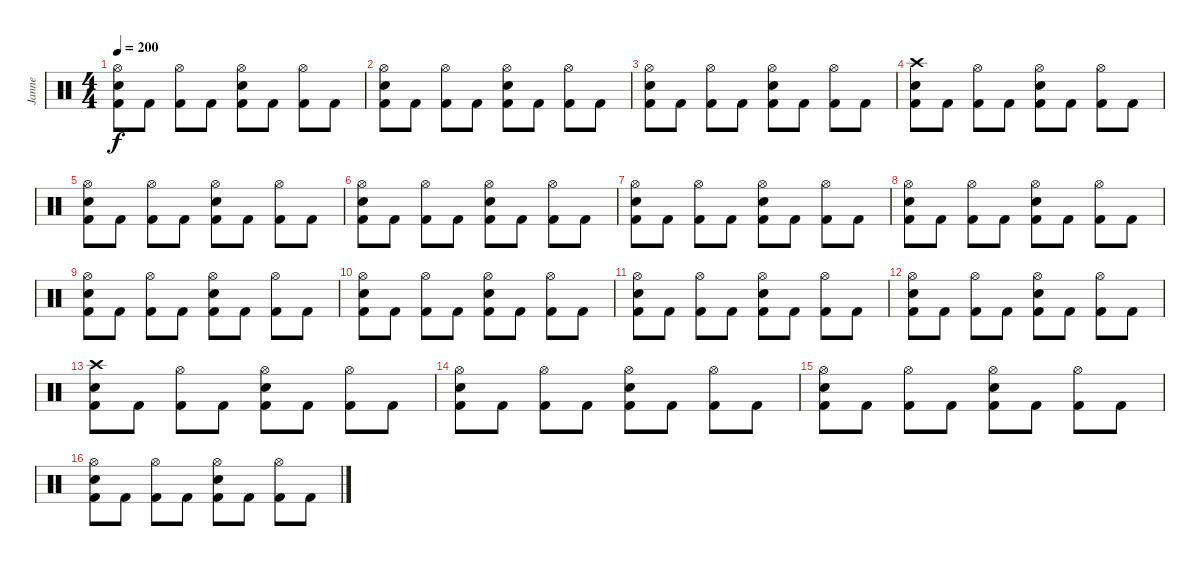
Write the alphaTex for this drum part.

\track ("Janne" "Janne") {instrument percussion}
\staff {score}
\articulation defaults
\ts (4 4)
\tempo 200
\clef neutral
\ks c
("Hi-Hat (open)" "Electric Snare (hit)" "Kick (hit) 2").8{dy f} "Kick (hit) 2".8 ("Hi-Hat (open)" "Kick (hit) 2").8 "Kick (hit) 2".8 ("Hi-Hat (open)" "Electric Snare (hit)" "Kick (hit) 2").8 "Kick (hit) 2".8 ("Hi-Hat (open)" "Kick (hit) 2").8 "Kick (hit) 2".8 |
("Hi-Hat (open)" "Electric Snare (hit)" "Kick (hit) 2").8 "Kick (hit) 2".8 ("Hi-Hat (open)" "Kick (hit) 2").8 "Kick (hit) 2".8 ("Hi-Hat (open)" "Electric Snare (hit)" "Kick (hit) 2").8 "Kick (hit) 2".8 ("Hi-Hat (open)" "Kick (hit) 2").8 "Kick (hit) 2".8 |
("Hi-Hat (open)" "Electric Snare (hit)" "Kick (hit) 2").8 "Kick (hit) 2".8 ("Hi-Hat (open)" "Kick (hit) 2").8 "Kick (hit) 2".8 ("Hi-Hat (open)" "Electric Snare (hit)" "Kick (hit) 2").8 "Kick (hit) 2".8 ("Hi-Hat (open)" "Kick (hit) 2").8 "Kick (hit) 2".8 |
("Crash high (hit)" "Electric Snare (hit)" "Kick (hit) 2").8 "Kick (hit) 2".8 ("Hi-Hat (open)" "Kick (hit) 2").8 "Kick (hit) 2".8 ("Hi-Hat (open)" "Electric Snare (hit)" "Kick (hit) 2").8 "Kick (hit) 2".8 ("Hi-Hat (open)" "Kick (hit) 2").8 "Kick (hit) 2".8 |
("Hi-Hat (open)" "Electric Snare (hit)" "Kick (hit) 2").8 "Kick (hit) 2".8 ("Hi-Hat (open)" "Kick (hit) 2").8 "Kick (hit) 2".8 ("Hi-Hat (open)" "Electric Snare (hit)" "Kick (hit) 2").8 "Kick (hit) 2".8 ("Hi-Hat (open)" "Kick (hit) 2").8 "Kick (hit) 2".8 |
("Hi-Hat (open)" "Electric Snare (hit)" "Kick (hit) 2").8 "Kick (hit) 2".8 ("Hi-Hat (open)" "Kick (hit) 2").8 "Kick (hit) 2".8 ("Hi-Hat (open)" "Electric Snare (hit)" "Kick (hit) 2").8 "Kick (hit) 2".8 ("Hi-Hat (open)" "Kick (hit) 2").8 "Kick (hit) 2".8 |
("Hi-Hat (open)" "Electric Snare (hit)" "Kick (hit) 2").8 "Kick (hit) 2".8 ("Hi-Hat (open)" "Kick (hit) 2").8 "Kick (hit) 2".8 ("Hi-Hat (open)" "Electric Snare (hit)" "Kick (hit) 2").8 "Kick (hit) 2".8 ("Hi-Hat (open)" "Kick (hit) 2").8 "Kick (hit) 2".8 |
("Hi-Hat (open)" "Electric Snare (hit)" "Kick (hit) 2").8 "Kick (hit) 2".8 ("Hi-Hat (open)" "Kick (hit) 2").8 "Kick (hit) 2".8 ("Hi-Hat (open)" "Electric Snare (hit)" "Kick (hit) 2").8 "Kick (hit) 2".8 ("Hi-Hat (open)" "Kick (hit) 2").8 "Kick (hit) 2".8 |
("Hi-Hat (open)" "Electric Snare (hit)" "Kick (hit) 2").8 "Kick (hit) 2".8 ("Hi-Hat (open)" "Kick (hit) 2").8 "Kick (hit) 2".8 ("Hi-Hat (open)" "Electric Snare (hit)" "Kick (hit) 2").8 "Kick (hit) 2".8 ("Hi-Hat (open)" "Kick (hit) 2").8 "Kick (hit) 2".8 |
("Hi-Hat (open)" "Electric Snare (hit)" "Kick (hit) 2").8 "Kick (hit) 2".8 ("Hi-Hat (open)" "Kick (hit) 2").8 "Kick (hit) 2".8 ("Hi-Hat (open)" "Electric Snare (hit)" "Kick (hit) 2").8 "Kick (hit) 2".8 ("Hi-Hat (open)" "Kick (hit) 2").8 "Kick (hit) 2".8 |
("Hi-Hat (open)" "Electric Snare (hit)" "Kick (hit) 2").8 "Kick (hit) 2".8 ("Hi-Hat (open)" "Kick (hit) 2").8 "Kick (hit) 2".8 ("Hi-Hat (open)" "Electric Snare (hit)" "Kick (hit) 2").8 "Kick (hit) 2".8 ("Hi-Hat (open)" "Kick (hit) 2").8 "Kick (hit) 2".8 |
("Hi-Hat (open)" "Electric Snare (hit)" "Kick (hit) 2").8 "Kick (hit) 2".8 ("Hi-Hat (open)" "Kick (hit) 2").8 "Kick (hit) 2".8 ("Hi-Hat (open)" "Electric Snare (hit)" "Kick (hit) 2").8 "Kick (hit) 2".8 ("Hi-Hat (open)" "Kick (hit) 2").8 "Kick (hit) 2".8 |
("Crash high (hit)" "Electric Snare (hit)" "Kick (hit) 2").8 "Kick (hit) 2".8 ("Hi-Hat (open)" "Kick (hit) 2").8 "Kick (hit) 2".8 ("Hi-Hat (open)" "Electric Snare (hit)" "Kick (hit) 2").8 "Kick (hit) 2".8 ("Hi-Hat (open)" "Kick (hit) 2").8 "Kick (hit) 2".8 |
("Hi-Hat (open)" "Electric Snare (hit)" "Kick (hit) 2").8 "Kick (hit) 2".8 ("Hi-Hat (open)" "Kick (hit) 2").8 "Kick (hit) 2".8 ("Hi-Hat (open)" "Electric Snare (hit)" "Kick (hit) 2").8 "Kick (hit) 2".8 ("Hi-Hat (open)" "Kick (hit) 2").8 "Kick (hit) 2".8 |
("Hi-Hat (open)" "Electric Snare (hit)" "Kick (hit) 2").8 "Kick (hit) 2".8 ("Hi-Hat (open)" "Kick (hit) 2").8 "Kick (hit) 2".8 ("Hi-Hat (open)" "Electric Snare (hit)" "Kick (hit) 2").8 "Kick (hit) 2".8 ("Hi-Hat (open)" "Kick (hit) 2").8 "Kick (hit) 2".8 |
("Hi-Hat (open)" "Electric Snare (hit)" "Kick (hit) 2").8 "Kick (hit) 2".8 ("Hi-Hat (open)" "Kick (hit) 2").8 "Kick (hit) 2".8 ("Hi-Hat (open)" "Electric Snare (hit)" "Kick (hit) 2").8 "Kick (hit) 2".8 ("Hi-Hat (open)" "Kick (hit) 2").8 "Kick (hit) 2".8
